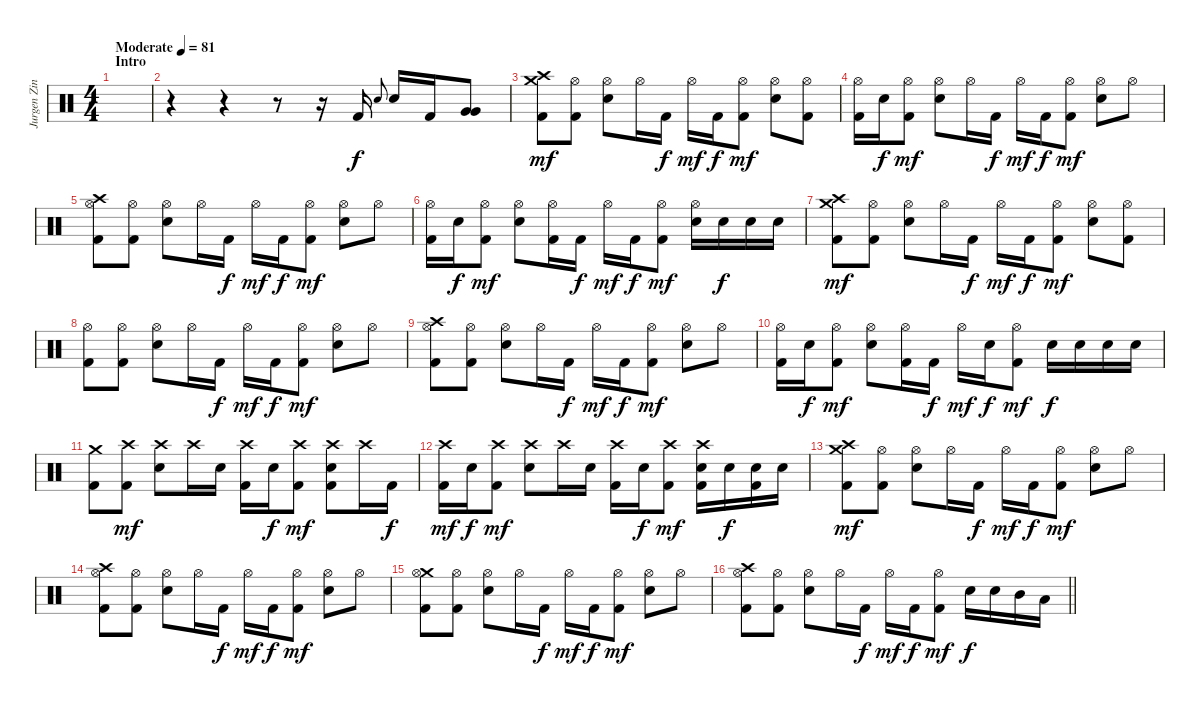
\track ("Jurgen Zing" "Jurgen Zin") {instrument percussion}
\staff {score}
\articulation defaults
\ts (4 4)
\section ("" "Intro")
\tempo (81 "Moderate")
\clef neutral
\ks c
|
r.4 r.4 r.8 r.16 "Kick (hit) 2".16 "Electric Snare (hit)".8{gr onbeat} "Electric Snare (hit)".16 "Kick (hit) 2".16 ("Very Low Tom (hit)" "Very Low Tom (hit)").8 |
("Crash medium (hit)" "Crash high (hit)" "Kick (hit) 2").8{dy mf} ("Hi-Hat (open)" "Kick (hit) 2").8 ("Hi-Hat (open)" "Electric Snare (hit)").8 "Hi-Hat (open)".16 "Kick (hit) 2".16{dy f} "Hi-Hat (open)".16{dy mf} "Kick (hit) 2".16{dy f} ("Hi-Hat (open)" "Kick (hit) 2").8{dy mf} ("Hi-Hat (open)" "Electric Snare (hit)").8 ("Hi-Hat (open)" "Kick (hit) 2").8 |
("Hi-Hat (open)" "Kick (hit) 2").16 "Electric Snare (hit)".16{dy f} ("Hi-Hat (open)" "Kick (hit) 2").8{dy mf} ("Hi-Hat (open)" "Electric Snare (hit)").8 "Hi-Hat (open)".16 "Kick (hit) 2".16{dy f} "Hi-Hat (open)".16{dy mf} "Kick (hit) 2".16{dy f} ("Hi-Hat (open)" "Kick (hit) 2").8{dy mf} ("Hi-Hat (open)" "Electric Snare (hit)").8 "Hi-Hat (open)".8 |
("Crash high (hit)" "Hi-Hat (open)" "Kick (hit) 2").8 ("Hi-Hat (open)" "Kick (hit) 2").8 ("Hi-Hat (open)" "Electric Snare (hit)").8 "Hi-Hat (open)".16 "Kick (hit) 2".16{dy f} "Hi-Hat (open)".16{dy mf} "Kick (hit) 2".16{dy f} ("Hi-Hat (open)" "Kick (hit) 2").8{dy mf} ("Hi-Hat (open)" "Electric Snare (hit)").8 "Hi-Hat (open)".8 |
("Hi-Hat (open)" "Kick (hit) 2").16 "Electric Snare (hit)".16{dy f} ("Hi-Hat (open)" "Kick (hit) 2").8{dy mf} ("Hi-Hat (open)" "Electric Snare (hit)").8 ("Hi-Hat (open)" "Kick (hit) 2").16 "Kick (hit) 2".16{dy f} "Hi-Hat (open)".16{dy mf} "Kick (hit) 2".16{dy f} ("Hi-Hat (open)" "Kick (hit) 2").8{dy mf} ("Hi-Hat (open)" "Electric Snare (hit)").16 "Electric Snare (hit)".16{dy f} "Electric Snare (hit)".16 "Electric Snare (hit)".16 |
("Crash medium (hit)" "Crash high (hit)" "Kick (hit) 2").8{dy mf} ("Hi-Hat (open)" "Kick (hit) 2").8 ("Hi-Hat (open)" "Electric Snare (hit)").8 "Hi-Hat (open)".16 "Kick (hit) 2".16{dy f} "Hi-Hat (open)".16{dy mf} "Kick (hit) 2".16{dy f} ("Hi-Hat (open)" "Kick (hit) 2").8{dy mf} ("Hi-Hat (open)" "Electric Snare (hit)").8 ("Hi-Hat (open)" "Kick (hit) 2").8 |
("Hi-Hat (open)" "Kick (hit) 2").8 ("Hi-Hat (open)" "Kick (hit) 2").8 ("Hi-Hat (open)" "Electric Snare (hit)").8 "Hi-Hat (open)".16 "Kick (hit) 2".16{dy f} "Hi-Hat (open)".16{dy mf} "Kick (hit) 2".16{dy f} ("Hi-Hat (open)" "Kick (hit) 2").8{dy mf} ("Hi-Hat (open)" "Electric Snare (hit)").8 "Hi-Hat (open)".8 |
("Crash high (hit)" "Hi-Hat (open)" "Kick (hit) 2").8 ("Hi-Hat (open)" "Kick (hit) 2").8 ("Hi-Hat (open)" "Electric Snare (hit)").8 "Hi-Hat (open)".16 "Kick (hit) 2".16{dy f} "Hi-Hat (open)".16{dy mf} "Kick (hit) 2".16{dy f} ("Hi-Hat (open)" "Kick (hit) 2").8{dy mf} ("Hi-Hat (open)" "Electric Snare (hit)").8 "Hi-Hat (open)".8 |
("Hi-Hat (open)" "Kick (hit) 2").16 "Electric Snare (hit)".16{dy f} ("Hi-Hat (open)" "Kick (hit) 2").8{dy mf} ("Hi-Hat (open)" "Electric Snare (hit)").8 ("Hi-Hat (open)" "Kick (hit) 2").16 "Kick (hit) 2".16{dy f} "Hi-Hat (open)".16{dy mf} "Electric Snare (hit)".16{dy f} ("Hi-Hat (open)" "Kick (hit) 2").8{dy mf} "Electric Snare (hit)".16{dy f} "Electric Snare (hit)".16 "Electric Snare (hit)".16 "Electric Snare (hit)".16 |
("Crash medium (hit)" "Kick (hit) 2").8 ("Crash high (hit)" "Kick (hit) 2").8{dy mf} ("Crash high (hit)" "Electric Snare (hit)").8 "Crash high (hit)".16 "Electric Snare (hit)".16 ("Crash high (hit)" "Kick (hit) 2").16 "Electric Snare (hit)".16{dy f} ("Crash high (hit)" "Kick (hit) 2").8{dy mf} ("Crash high (hit)" "Electric Snare (hit)" "Kick (hit) 2").8 "Crash high (hit)".16 "Kick (hit) 2".16{dy f} |
("Crash high (hit)" "Kick (hit) 2").16{dy mf} "Electric Snare (hit)".16{dy f} ("Crash high (hit)" "Kick (hit) 2").8{dy mf} ("Crash high (hit)" "Electric Snare (hit)").8 "Crash high (hit)".16 "Electric Snare (hit)".16 ("Crash high (hit)" "Kick (hit) 2").16 "Electric Snare (hit)".16{dy f} ("Crash high (hit)" "Kick (hit) 2").8{dy mf} ("Crash high (hit)" "Electric Snare (hit)" "Kick (hit) 2").16 "Electric Snare (hit)".16{dy f} ("Electric Snare (hit)" "Kick (hit) 2").16 "Electric Snare (hit)".16 |
("Crash medium (hit)" "Crash high (hit)" "Kick (hit) 2").8{dy mf} ("Hi-Hat (open)" "Kick (hit) 2").8 ("Hi-Hat (open)" "Electric Snare (hit)").8 "Hi-Hat (open)".16 "Kick (hit) 2".16{dy f} "Hi-Hat (open)".16{dy mf} "Kick (hit) 2".16{dy f} ("Hi-Hat (open)" "Kick (hit) 2").8{dy mf} ("Hi-Hat (open)" "Electric Snare (hit)").8 "Hi-Hat (open)".8 |
("Crash high (hit)" "Hi-Hat (open)" "Kick (hit) 2").8 ("Hi-Hat (open)" "Kick (hit) 2").8 ("Hi-Hat (open)" "Electric Snare (hit)").8 "Hi-Hat (open)".16 "Kick (hit) 2".16{dy f} "Hi-Hat (open)".16{dy mf} "Kick (hit) 2".16{dy f} ("Hi-Hat (open)" "Kick (hit) 2").8{dy mf} ("Hi-Hat (open)" "Electric Snare (hit)").8 "Hi-Hat (open)".8 |
("Crash medium (hit)" "Hi-Hat (open)" "Kick (hit) 2").8 ("Hi-Hat (open)" "Kick (hit) 2").8 ("Hi-Hat (open)" "Electric Snare (hit)").8 "Hi-Hat (open)".16 "Kick (hit) 2".16{dy f} "Hi-Hat (open)".16{dy mf} "Kick (hit) 2".16{dy f} ("Hi-Hat (open)" "Kick (hit) 2").8{dy mf} ("Hi-Hat (open)" "Electric Snare (hit)").8 "Hi-Hat (open)".8 |
\barLineRight lightlight
("Crash high (hit)" "Hi-Hat (open)" "Kick (hit) 2").8 ("Hi-Hat (open)" "Kick (hit) 2").8 ("Hi-Hat (open)" "Electric Snare (hit)").8 "Hi-Hat (open)".16 "Kick (hit) 2".16{dy f} "Hi-Hat (open)".16{dy mf} "Kick (hit) 2".16{dy f} ("Hi-Hat (open)" "Kick (hit) 2").8{dy mf} "Electric Snare (hit)".16{dy f} "Electric Snare (hit)".16 "Mid Tom (hit)".16 "Low Tom (hit)".16
